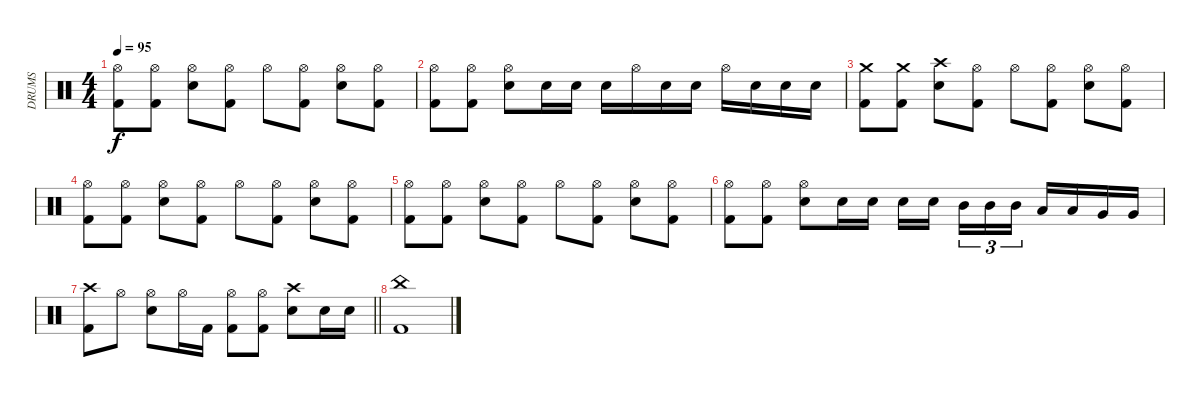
\track ("DRUMS" "DRUMS") {instrument percussion}
\staff {score}
\articulation defaults
\ts (4 4)
\tempo 95
\clef neutral
\ks c
("Hi-Hat (open)" "Kick (hit) 2").8{dy f} ("Hi-Hat (open)" "Kick (hit) 2").8 ("Hi-Hat (open)" "Snare (hit) 2").8 ("Hi-Hat (open)" "Kick (hit) 2").8 "Hi-Hat (open)".8 ("Hi-Hat (open)" "Kick (hit) 2").8 ("Hi-Hat (open)" "Snare (hit) 2").8 ("Hi-Hat (open)" "Kick (hit) 2").8 |
("Hi-Hat (open)" "Kick (hit) 2").8 ("Hi-Hat (open)" "Kick (hit) 2").8 ("Hi-Hat (open)" "Snare (hit) 2").8 "Snare (hit) 2".16 "Snare (hit) 2".16 "Snare (hit) 2".16 "Hi-Hat (open)".16 "Snare (hit) 2".16 "Snare (hit) 2".16 "Hi-Hat (open)".16 "Snare (hit) 2".16 "Snare (hit) 2".16 "Snare (hit) 2".16 |
("Crash medium (hit)" "Kick (hit) 2").8 ("Crash medium (hit)" "Kick (hit) 2").8 ("Crash high (hit)" "Snare (hit) 2").8 ("Hi-Hat (open)" "Kick (hit) 2").8 "Hi-Hat (open)".8 ("Hi-Hat (open)" "Kick (hit) 2").8 ("Hi-Hat (open)" "Snare (hit) 2").8 ("Hi-Hat (open)" "Kick (hit) 2").8 |
("Hi-Hat (open)" "Kick (hit) 2").8 ("Hi-Hat (open)" "Kick (hit) 2").8 ("Hi-Hat (open)" "Snare (hit) 2").8 ("Hi-Hat (open)" "Kick (hit) 2").8 "Hi-Hat (open)".8 ("Hi-Hat (open)" "Kick (hit) 2").8 ("Hi-Hat (open)" "Snare (hit) 2").8 ("Hi-Hat (open)" "Kick (hit) 2").8 |
("Hi-Hat (open)" "Kick (hit) 2").8 ("Hi-Hat (open)" "Kick (hit) 2").8 ("Hi-Hat (open)" "Snare (hit) 2").8 ("Hi-Hat (open)" "Kick (hit) 2").8 "Hi-Hat (open)".8 ("Hi-Hat (open)" "Kick (hit) 2").8 ("Hi-Hat (open)" "Snare (hit) 2").8 ("Hi-Hat (open)" "Kick (hit) 2").8 |
("Hi-Hat (open)" "Kick (hit) 2").8 ("Hi-Hat (open)" "Kick (hit) 2").8 ("Hi-Hat (open)" "Snare (hit) 2").8 "Snare (hit) 2".16 "Snare (hit) 2".16 "Snare (hit) 2".16 "Snare (hit) 2".16{beam splitsecondary} "Mid Tom (hit)".16{tu (3 2)} "Mid Tom (hit)".16{tu (3 2)} "Mid Tom (hit)".16{tu (3 2)} "Low Tom (hit)".16 "Low Tom (hit)".16 "Very Low Tom (hit)".16 "Very Low Tom (hit)".16 |
\barLineRight lightlight
("Crash high (hit)" "Kick (hit) 2").8 "Hi-Hat (open)".8 ("Hi-Hat (open)" "Snare (hit) 2").8 "Hi-Hat (open)".16 "Kick (hit) 2".16 ("Hi-Hat (open)" "Kick (hit) 2").8 ("Hi-Hat (open)" "Kick (hit) 2").8 ("Crash high (hit)" "Snare (hit) 2").8 "Snare (hit) 2".16 "Snare (hit) 2".16 |
("China (hit)" "Kick (hit) 2").1
